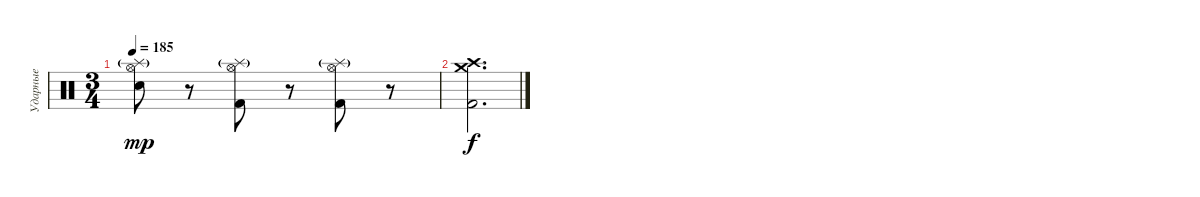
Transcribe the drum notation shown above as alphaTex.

\track ("Ударные" "Ударные") {instrument percussion}
\staff {score}
\articulation defaults
\ts (3 4)
\tempo 185
\clef neutral
\ks c
("Hi-Hat (open)" "Splash (hit)"{g} "Snare (hit) 2").8{dy mp} r.8 ("Hi-Hat (open)" "Splash (hit)"{g} "Kick (hit) 2").8 r.8 ("Hi-Hat (open)" "Splash (hit)"{g} "Kick (hit) 2").8 r.8 |
("Crash high (hit)" "Crash medium (hit)" "Kick (hit) 2").2{d dy f}
